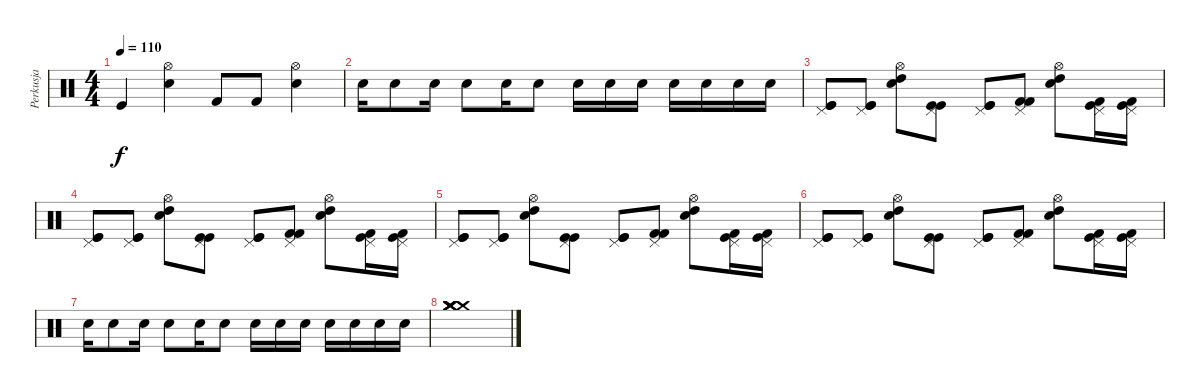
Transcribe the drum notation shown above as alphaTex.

\track ("Perkusja" "Perkusja") {instrument percussion}
\staff {score}
\articulation defaults
\ts (4 4)
\tempo 110
\clef neutral
\ks c "Kick (hit)".4{dy f}
("Hi-Hat (open)" "Snare (hit) 2").4 "Kick (hit) 2".8 "Kick (hit) 2".8 ("Hi-Hat (open)" "Snare (hit) 2").4 |
"Snare (hit) 2".16 "Snare (hit) 2".8 "Snare (hit) 2".16 "Snare (hit) 2".8 "Snare (hit) 2".16 "Snare (hit) 2".8 "Snare (hit) 2".16 "Snare (hit) 2".16 "Snare (hit) 2".16 "Snare (hit) 2".16 "Snare (hit) 2".16 "Snare (hit) 2".16 "Snare (hit) 2".16 |
("Pedal Hi-Hat (hit)" "Kick (hit)" "Kick (hit)").8 ("Pedal Hi-Hat (hit)" "Kick (hit)" "Kick (hit)").8 ("Hi-Hat (open)" "Snare (hit) 2" "High Tom (hit)").8 ("Pedal Hi-Hat (hit)" "Kick (hit)" "Kick (hit)").8 ("Pedal Hi-Hat (hit)" "Kick (hit)" "Kick (hit)").8 ("Pedal Hi-Hat (hit)" "Kick (hit) 2" "Kick (hit) 2").8 ("Hi-Hat (open)" "Snare (hit) 2" "High Tom (hit)").8 ("Pedal Hi-Hat (hit)" "Kick (hit)" "Kick (hit) 2").16 ("Pedal Hi-Hat (hit)" "Kick (hit)" "Kick (hit) 2").16 |
("Pedal Hi-Hat (hit)" "Kick (hit)" "Kick (hit)").8 ("Pedal Hi-Hat (hit)" "Kick (hit)" "Kick (hit)").8 ("Hi-Hat (open)" "Snare (hit) 2" "High Tom (hit)").8 ("Pedal Hi-Hat (hit)" "Kick (hit)" "Kick (hit)").8 ("Pedal Hi-Hat (hit)" "Kick (hit)" "Kick (hit)").8 ("Pedal Hi-Hat (hit)" "Kick (hit) 2" "Kick (hit) 2").8 ("Hi-Hat (open)" "Snare (hit) 2" "High Tom (hit)").8 ("Pedal Hi-Hat (hit)" "Kick (hit)" "Kick (hit) 2").16 ("Pedal Hi-Hat (hit)" "Kick (hit)" "Kick (hit) 2").16 |
("Pedal Hi-Hat (hit)" "Kick (hit)" "Kick (hit)").8 ("Pedal Hi-Hat (hit)" "Kick (hit)" "Kick (hit)").8 ("Hi-Hat (open)" "Snare (hit) 2" "High Tom (hit)").8 ("Pedal Hi-Hat (hit)" "Kick (hit)" "Kick (hit)").8 ("Pedal Hi-Hat (hit)" "Kick (hit)" "Kick (hit)").8 ("Pedal Hi-Hat (hit)" "Kick (hit) 2" "Kick (hit) 2").8 ("Hi-Hat (open)" "Snare (hit) 2" "High Tom (hit)").8 ("Pedal Hi-Hat (hit)" "Kick (hit)" "Kick (hit) 2").16 ("Pedal Hi-Hat (hit)" "Kick (hit)" "Kick (hit) 2").16 |
("Pedal Hi-Hat (hit)" "Kick (hit)" "Kick (hit)").8 ("Pedal Hi-Hat (hit)" "Kick (hit)" "Kick (hit)").8 ("Hi-Hat (open)" "Snare (hit) 2" "High Tom (hit)").8 ("Pedal Hi-Hat (hit)" "Kick (hit)" "Kick (hit)").8 ("Pedal Hi-Hat (hit)" "Kick (hit)" "Kick (hit)").8 ("Pedal Hi-Hat (hit)" "Kick (hit) 2" "Kick (hit) 2").8 ("Hi-Hat (open)" "Snare (hit) 2" "High Tom (hit)").8 ("Pedal Hi-Hat (hit)" "Kick (hit)" "Kick (hit) 2").16 ("Pedal Hi-Hat (hit)" "Kick (hit)" "Kick (hit) 2").16 |
"Snare (hit) 2".16 "Snare (hit) 2".8 "Snare (hit) 2".16 "Snare (hit) 2".8 "Snare (hit) 2".16 "Snare (hit) 2".8 "Snare (hit) 2".16 "Snare (hit) 2".16 "Snare (hit) 2".16 "Snare (hit) 2".16 "Snare (hit) 2".16 "Snare (hit) 2".16 "Snare (hit) 2".16 |
("Crash medium (hit)" "Crash medium (hit)" "Crash medium (hit)" "Crash medium (hit)" "Crash medium (hit)" "Crash medium (hit)").1
